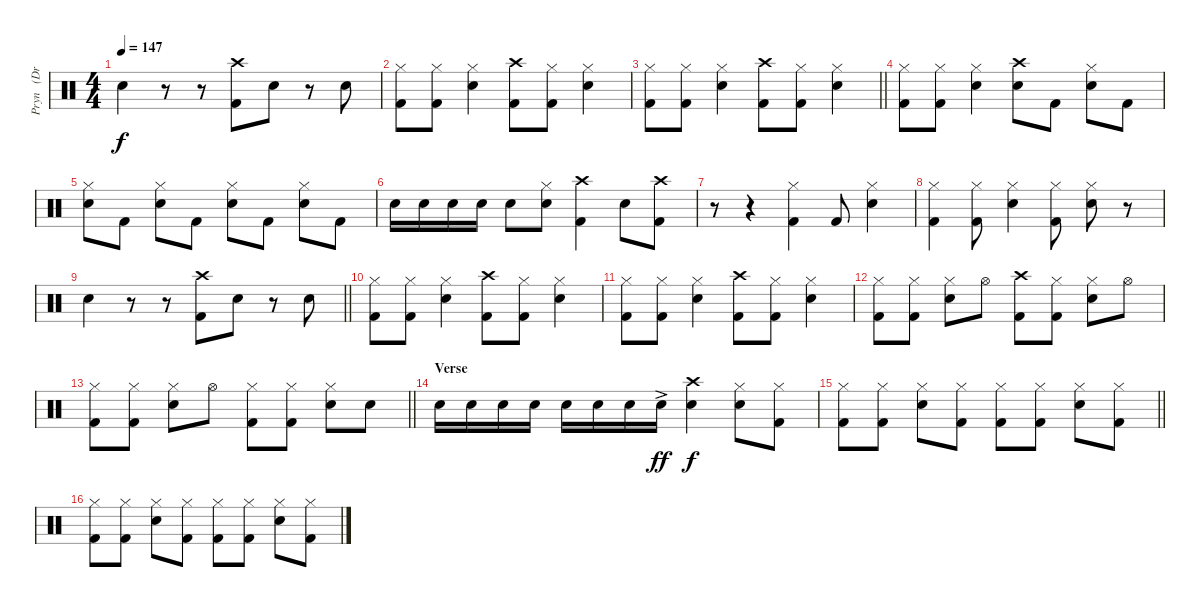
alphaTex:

\track ("Pryn   (Drums)" "Pryn   (Dr") {instrument percussion}
\staff {score}
\articulation defaults
\ts (4 4)
\tempo 147
\clef neutral
\ks c "Electric Snare (hit)".4{dy f}
r.8 r.8 ("Crash high (hit)" "Kick (hit) 2").8 "Electric Snare (hit)".8 r.8 "Electric Snare (hit)".8 |
("Kick (hit) 2" "Hi-Hat (closed)").8 ("Hi-Hat (closed)" "Kick (hit) 2").8 ("Electric Snare (hit)" "Hi-Hat (closed)").4 ("Kick (hit) 2" "Crash high (hit)").8 ("Hi-Hat (closed)" "Kick (hit) 2").8 ("Electric Snare (hit)" "Hi-Hat (closed)").4 |
\barLineRight lightlight
("Kick (hit) 2" "Hi-Hat (closed)").8 ("Hi-Hat (closed)" "Kick (hit) 2").8 ("Electric Snare (hit)" "Hi-Hat (closed)").4 ("Kick (hit) 2" "Crash high (hit)").8 ("Hi-Hat (closed)" "Kick (hit) 2").8 ("Electric Snare (hit)" "Hi-Hat (closed)").4 |
("Kick (hit) 2" "Hi-Hat (closed)").8 ("Hi-Hat (closed)" "Kick (hit) 2").8 ("Electric Snare (hit)" "Hi-Hat (closed)").4 ("Electric Snare (hit)" "Crash high (hit)").8 "Kick (hit) 2".8 ("Hi-Hat (closed)" "Electric Snare (hit)").8 "Kick (hit) 2".8 |
("Electric Snare (hit)" "Hi-Hat (closed)").8 "Kick (hit) 2".8 ("Hi-Hat (closed)" "Electric Snare (hit)").8 "Kick (hit) 2".8 ("Electric Snare (hit)" "Hi-Hat (closed)").8 "Kick (hit) 2".8 ("Hi-Hat (closed)" "Electric Snare (hit)").8 "Kick (hit) 2".8 |
"Electric Snare (hit)".16 "Electric Snare (hit)".16 "Electric Snare (hit)".16 "Electric Snare (hit)".16 "Electric Snare (hit)".8 ("Electric Snare (hit)" "Hi-Hat (closed)").8 ("Crash high (hit)" "Kick (hit) 2").4 "Electric Snare (hit)".8 ("Kick (hit) 2" "Crash high (hit)").8 |
r.8 r.4 ("Kick (hit) 2" "Hi-Hat (closed)").4 "Kick (hit) 2".8 ("Electric Snare (hit)" "Hi-Hat (closed)").4 |
("Kick (hit) 2" "Hi-Hat (closed)").4 ("Hi-Hat (closed)" "Kick (hit) 2").8 ("Electric Snare (hit)" "Hi-Hat (closed)").4 ("Hi-Hat (closed)" "Kick (hit) 2").8 ("Hi-Hat (closed)" "Electric Snare (hit)").8 r.8 |
\barLineRight lightlight "Electric Snare (hit)".4
r.8 r.8 ("Crash high (hit)" "Kick (hit) 2").8 "Electric Snare (hit)".8 r.8 "Electric Snare (hit)".8 |
("Kick (hit) 2" "Hi-Hat (closed)").8 ("Hi-Hat (closed)" "Kick (hit) 2").8 ("Electric Snare (hit)" "Hi-Hat (closed)").4 ("Kick (hit) 2" "Crash high (hit)").8 ("Hi-Hat (closed)" "Kick (hit) 2").8 ("Electric Snare (hit)" "Hi-Hat (closed)").4 |
("Kick (hit) 2" "Hi-Hat (closed)").8 ("Hi-Hat (closed)" "Kick (hit) 2").8 ("Electric Snare (hit)" "Hi-Hat (closed)").4 ("Kick (hit) 2" "Crash high (hit)").8 ("Hi-Hat (closed)" "Kick (hit) 2").8 ("Electric Snare (hit)" "Hi-Hat (closed)").4 |
("Kick (hit) 2" "Hi-Hat (closed)").8 ("Hi-Hat (closed)" "Kick (hit) 2").8 ("Electric Snare (hit)" "Hi-Hat (closed)").8 "Hi-Hat (open)".8 ("Kick (hit) 2" "Crash high (hit)").8 ("Hi-Hat (closed)" "Kick (hit) 2").8 ("Electric Snare (hit)" "Hi-Hat (closed)").8 "Hi-Hat (open)".8 |
\barLineRight lightlight
("Kick (hit) 2" "Hi-Hat (closed)").8 ("Hi-Hat (closed)" "Kick (hit) 2").8 ("Electric Snare (hit)" "Hi-Hat (closed)").8 "Hi-Hat (open)".8 ("Kick (hit) 2" "Hi-Hat (closed)").8 ("Hi-Hat (closed)" "Kick (hit) 2").8 ("Electric Snare (hit)" "Hi-Hat (closed)").8 "Electric Snare (hit)".8 |
\section ("" "Verse")
"Electric Snare (hit)".16 "Electric Snare (hit)".16 "Electric Snare (hit)".16 "Electric Snare (hit)".16 "Electric Snare (hit)".16 "Electric Snare (hit)".16 "Electric Snare (hit)".16 "Electric Snare (hit)"{ac}.16{dy ff} ("Electric Snare (hit)" "Crash high (hit)").4{dy f} ("Electric Snare (hit)" "Hi-Hat (closed)").8 ("Kick (hit) 2" "Hi-Hat (closed)").8 |
\barLineRight lightlight
("Kick (hit) 2" "Hi-Hat (closed)").8 ("Kick (hit) 2" "Hi-Hat (closed)").8 ("Electric Snare (hit)" "Hi-Hat (closed)").8 ("Kick (hit) 2" "Hi-Hat (closed)").8 ("Hi-Hat (closed)" "Kick (hit) 2").8 ("Kick (hit) 2" "Hi-Hat (closed)").8 ("Electric Snare (hit)" "Hi-Hat (closed)").8 ("Kick (hit) 2" "Hi-Hat (closed)").8 |
("Kick (hit) 2" "Hi-Hat (closed)").8 ("Kick (hit) 2" "Hi-Hat (closed)").8 ("Electric Snare (hit)" "Hi-Hat (closed)").8 ("Kick (hit) 2" "Hi-Hat (closed)").8 ("Hi-Hat (closed)" "Kick (hit) 2").8 ("Kick (hit) 2" "Hi-Hat (closed)").8 ("Electric Snare (hit)" "Hi-Hat (closed)").8 ("Kick (hit) 2" "Hi-Hat (closed)").8
